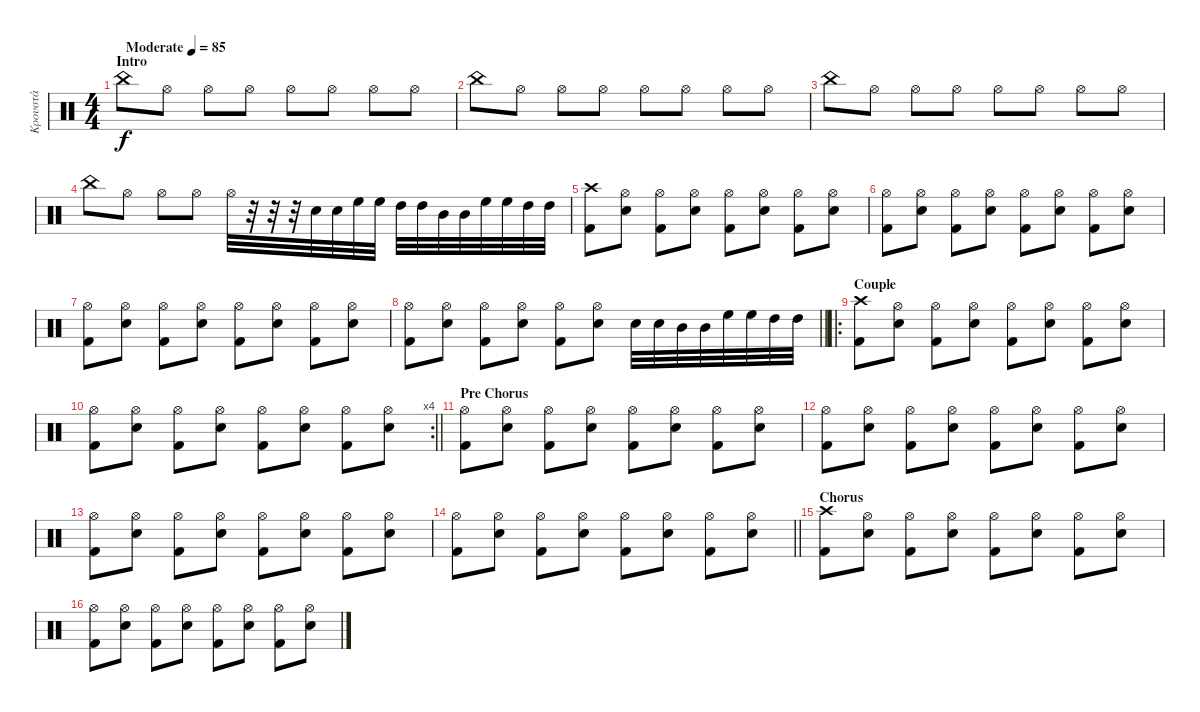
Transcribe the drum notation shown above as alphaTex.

\track ("Κρουστά" "Κρουστά") {instrument percussion}
\staff {score}
\articulation defaults
\ts (4 4)
\section ("" "Intro")
\tempo (85 "Moderate")
\clef neutral
\ks c "China (hit)".8{dy f} "Hi-Hat (open)".8 "Hi-Hat (open)".8 "Hi-Hat (open)".8 "Hi-Hat (open)".8 "Hi-Hat (open)".8 "Hi-Hat (open)".8 "Hi-Hat (open)".8
|
"China (hit)".8 "Hi-Hat (open)".8 "Hi-Hat (open)".8 "Hi-Hat (open)".8 "Hi-Hat (open)".8 "Hi-Hat (open)".8 "Hi-Hat (open)".8 "Hi-Hat (open)".8 |
"China (hit)".8 "Hi-Hat (open)".8 "Hi-Hat (open)".8 "Hi-Hat (open)".8 "Hi-Hat (open)".8 "Hi-Hat (open)".8 "Hi-Hat (open)".8 "Hi-Hat (open)".8 |
"China (hit)".8 "Hi-Hat (open)".8 "Hi-Hat (open)".8 "Hi-Hat (open)".8 "Hi-Hat (open)".32 r.32 r.32 r.32 "Snare (hit) 2".32 "Snare (hit) 2".32 "High Floor Tom (hit)".32 "High Floor Tom (hit)".32 "High Tom (hit)".32 "High Tom (hit)".32 "Mid Tom (hit)".32 "Mid Tom (hit)".32 "High Floor Tom (hit)".32 "High Floor Tom (hit)".32 "High Tom (hit)".32 "High Tom (hit)".32 |
("Crash high (hit)" "Kick (hit) 2").8 ("Snare (hit) 2" "Hi-Hat (open)").8 ("Hi-Hat (open)" "Kick (hit) 2").8 ("Snare (hit) 2" "Hi-Hat (open)").8 ("Hi-Hat (open)" "Kick (hit) 2").8 ("Snare (hit) 2" "Hi-Hat (open)").8 ("Hi-Hat (open)" "Kick (hit) 2").8 ("Snare (hit) 2" "Hi-Hat (open)").8 |
("Hi-Hat (open)" "Kick (hit) 2").8 ("Snare (hit) 2" "Hi-Hat (open)").8 ("Hi-Hat (open)" "Kick (hit) 2").8 ("Snare (hit) 2" "Hi-Hat (open)").8 ("Hi-Hat (open)" "Kick (hit) 2").8 ("Snare (hit) 2" "Hi-Hat (open)").8 ("Hi-Hat (open)" "Kick (hit) 2").8 ("Snare (hit) 2" "Hi-Hat (open)").8 |
("Hi-Hat (open)" "Kick (hit) 2").8 ("Snare (hit) 2" "Hi-Hat (open)").8 ("Hi-Hat (open)" "Kick (hit) 2").8 ("Snare (hit) 2" "Hi-Hat (open)").8 ("Hi-Hat (open)" "Kick (hit) 2").8 ("Snare (hit) 2" "Hi-Hat (open)").8 ("Hi-Hat (open)" "Kick (hit) 2").8 ("Snare (hit) 2" "Hi-Hat (open)").8 |
\barLineRight lightlight
("Hi-Hat (open)" "Kick (hit) 2").8 ("Snare (hit) 2" "Hi-Hat (open)").8 ("Hi-Hat (open)" "Kick (hit) 2").8 ("Snare (hit) 2" "Hi-Hat (open)").8 ("Hi-Hat (open)" "Kick (hit) 2").8 ("Snare (hit) 2" "Hi-Hat (open)").8 "Snare (hit) 2".32 "Snare (hit) 2".32 "Mid Tom (hit)".32 "Mid Tom (hit)".32 "High Floor Tom (hit)".32 "High Floor Tom (hit)".32 "High Tom (hit)".32 "High Tom (hit)".32 |
\ro
\section ("" "Couple")
("Crash high (hit)" "Kick (hit) 2").8 ("Snare (hit) 2" "Hi-Hat (open)").8 ("Hi-Hat (open)" "Kick (hit) 2").8 ("Snare (hit) 2" "Hi-Hat (open)").8 ("Hi-Hat (open)" "Kick (hit) 2").8 ("Snare (hit) 2" "Hi-Hat (open)").8 ("Hi-Hat (open)" "Kick (hit) 2").8 ("Snare (hit) 2" "Hi-Hat (open)").8 |
\rc 4
\barLineRight lightlight
("Hi-Hat (open)" "Kick (hit) 2").8 ("Snare (hit) 2" "Hi-Hat (open)").8 ("Hi-Hat (open)" "Kick (hit) 2").8 ("Snare (hit) 2" "Hi-Hat (open)").8 ("Hi-Hat (open)" "Kick (hit) 2").8 ("Snare (hit) 2" "Hi-Hat (open)").8 ("Hi-Hat (open)" "Kick (hit) 2").8 ("Snare (hit) 2" "Hi-Hat (open)").8 |
\section ("" "Pre Chorus")
("Hi-Hat (open)" "Kick (hit) 2").8 ("Snare (hit) 2" "Hi-Hat (open)").8 ("Hi-Hat (open)" "Kick (hit) 2").8 ("Snare (hit) 2" "Hi-Hat (open)").8 ("Hi-Hat (open)" "Kick (hit) 2").8 ("Snare (hit) 2" "Hi-Hat (open)").8 ("Hi-Hat (open)" "Kick (hit) 2").8 ("Snare (hit) 2" "Hi-Hat (open)").8 |
("Hi-Hat (open)" "Kick (hit) 2").8 ("Snare (hit) 2" "Hi-Hat (open)").8 ("Hi-Hat (open)" "Kick (hit) 2").8 ("Snare (hit) 2" "Hi-Hat (open)").8 ("Hi-Hat (open)" "Kick (hit) 2").8 ("Snare (hit) 2" "Hi-Hat (open)").8 ("Hi-Hat (open)" "Kick (hit) 2").8 ("Snare (hit) 2" "Hi-Hat (open)").8 |
("Hi-Hat (open)" "Kick (hit) 2").8 ("Snare (hit) 2" "Hi-Hat (open)").8 ("Hi-Hat (open)" "Kick (hit) 2").8 ("Snare (hit) 2" "Hi-Hat (open)").8 ("Hi-Hat (open)" "Kick (hit) 2").8 ("Snare (hit) 2" "Hi-Hat (open)").8 ("Hi-Hat (open)" "Kick (hit) 2").8 ("Snare (hit) 2" "Hi-Hat (open)").8 |
\barLineRight lightlight
("Hi-Hat (open)" "Kick (hit) 2").8 ("Snare (hit) 2" "Hi-Hat (open)").8 ("Hi-Hat (open)" "Kick (hit) 2").8 ("Snare (hit) 2" "Hi-Hat (open)").8 ("Hi-Hat (open)" "Kick (hit) 2").8 ("Snare (hit) 2" "Hi-Hat (open)").8 ("Hi-Hat (open)" "Kick (hit) 2").8 ("Snare (hit) 2" "Hi-Hat (open)").8 |
\section ("" "Chorus")
("Crash high (hit)" "Kick (hit) 2").8 ("Snare (hit) 2" "Hi-Hat (open)").8 ("Hi-Hat (open)" "Kick (hit) 2").8 ("Snare (hit) 2" "Hi-Hat (open)").8 ("Hi-Hat (open)" "Kick (hit) 2").8 ("Snare (hit) 2" "Hi-Hat (open)").8 ("Hi-Hat (open)" "Kick (hit) 2").8 ("Snare (hit) 2" "Hi-Hat (open)").8 |
("Hi-Hat (open)" "Kick (hit) 2").8 ("Snare (hit) 2" "Hi-Hat (open)").8 ("Hi-Hat (open)" "Kick (hit) 2").8 ("Snare (hit) 2" "Hi-Hat (open)").8 ("Hi-Hat (open)" "Kick (hit) 2").8 ("Snare (hit) 2" "Hi-Hat (open)").8 ("Hi-Hat (open)" "Kick (hit) 2").8 ("Snare (hit) 2" "Hi-Hat (open)").8
